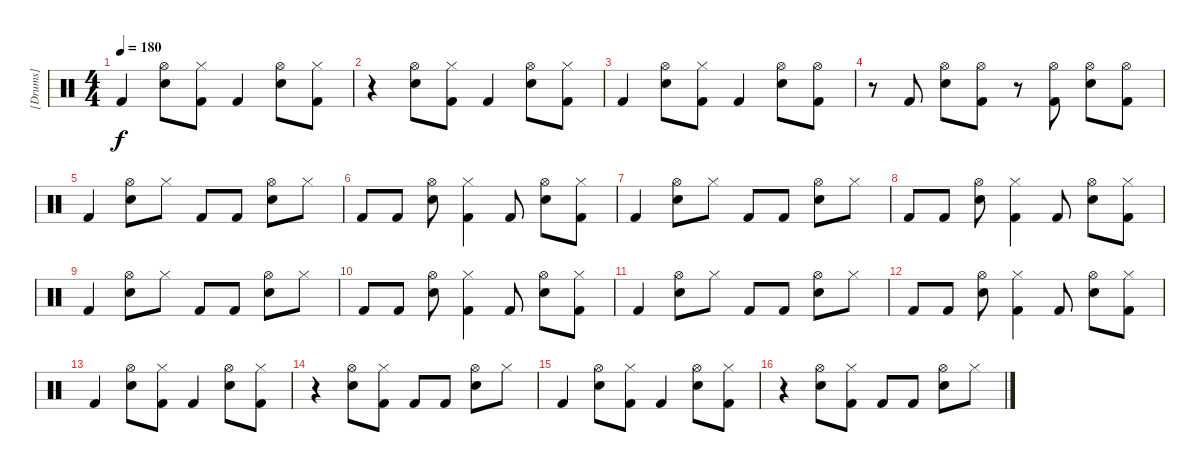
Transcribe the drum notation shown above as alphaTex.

\track ("[Drums]" "[Drums]") {instrument percussion}
\staff {score}
\articulation defaults
\ts (4 4)
\tempo 180
\clef neutral
\ks c "Kick (hit) 2".4{dy f}
("Hi-Hat (open)" "Electric Snare (hit)").8 ("Hi-Hat (closed)" "Kick (hit) 2").8 "Kick (hit) 2".4 ("Hi-Hat (open)" "Electric Snare (hit)").8 ("Hi-Hat (closed)" "Kick (hit) 2").8 |
r.4 ("Hi-Hat (open)" "Electric Snare (hit)").8 ("Hi-Hat (closed)" "Kick (hit) 2").8 "Kick (hit) 2".4 ("Hi-Hat (open)" "Electric Snare (hit)").8 ("Hi-Hat (closed)" "Kick (hit) 2").8 |
"Kick (hit) 2".4 ("Hi-Hat (open)" "Electric Snare (hit)").8 ("Hi-Hat (closed)" "Kick (hit) 2").8 "Kick (hit) 2".4 ("Hi-Hat (open)" "Electric Snare (hit)").8 ("Hi-Hat (open)" "Kick (hit) 2").8 |
r.8 "Kick (hit) 2".8 ("Hi-Hat (open)" "Electric Snare (hit)").8 ("Hi-Hat (open)" "Kick (hit) 2").8 r.8 ("Hi-Hat (open)" "Kick (hit) 2").8 ("Hi-Hat (open)" "Electric Snare (hit)").8 ("Hi-Hat (open)" "Kick (hit) 2").8 |
"Kick (hit) 2".4 ("Hi-Hat (open)" "Electric Snare (hit)").8 "Hi-Hat (closed)".8 "Kick (hit) 2".8 "Kick (hit) 2".8 ("Hi-Hat (open)" "Electric Snare (hit)").8 "Hi-Hat (closed)".8 |
"Kick (hit) 2".8 "Kick (hit) 2".8 ("Hi-Hat (open)" "Electric Snare (hit)").8 ("Hi-Hat (closed)" "Kick (hit) 2").4 "Kick (hit) 2".8 ("Hi-Hat (open)" "Electric Snare (hit)").8 ("Hi-Hat (closed)" "Kick (hit) 2").8 |
"Kick (hit) 2".4 ("Hi-Hat (open)" "Electric Snare (hit)").8 "Hi-Hat (closed)".8 "Kick (hit) 2".8 "Kick (hit) 2".8 ("Hi-Hat (open)" "Electric Snare (hit)").8 "Hi-Hat (closed)".8 |
"Kick (hit) 2".8 "Kick (hit) 2".8 ("Hi-Hat (open)" "Electric Snare (hit)").8 ("Hi-Hat (closed)" "Kick (hit) 2").4 "Kick (hit) 2".8 ("Hi-Hat (open)" "Electric Snare (hit)").8 ("Hi-Hat (closed)" "Kick (hit) 2").8 |
"Kick (hit) 2".4 ("Hi-Hat (open)" "Electric Snare (hit)").8 "Hi-Hat (closed)".8 "Kick (hit) 2".8 "Kick (hit) 2".8 ("Hi-Hat (open)" "Electric Snare (hit)").8 "Hi-Hat (closed)".8 |
"Kick (hit) 2".8 "Kick (hit) 2".8 ("Hi-Hat (open)" "Electric Snare (hit)").8 ("Hi-Hat (closed)" "Kick (hit) 2").4 "Kick (hit) 2".8 ("Hi-Hat (open)" "Electric Snare (hit)").8 ("Hi-Hat (closed)" "Kick (hit) 2").8 |
"Kick (hit) 2".4 ("Hi-Hat (open)" "Electric Snare (hit)").8 "Hi-Hat (closed)".8 "Kick (hit) 2".8 "Kick (hit) 2".8 ("Hi-Hat (open)" "Electric Snare (hit)").8 "Hi-Hat (closed)".8 |
"Kick (hit) 2".8 "Kick (hit) 2".8 ("Hi-Hat (open)" "Electric Snare (hit)").8 ("Hi-Hat (closed)" "Kick (hit) 2").4 "Kick (hit) 2".8 ("Hi-Hat (open)" "Electric Snare (hit)").8 ("Hi-Hat (closed)" "Kick (hit) 2").8 |
"Kick (hit) 2".4 ("Hi-Hat (open)" "Electric Snare (hit)").8 ("Hi-Hat (closed)" "Kick (hit) 2").8 "Kick (hit) 2".4 ("Hi-Hat (open)" "Electric Snare (hit)").8 ("Hi-Hat (closed)" "Kick (hit) 2").8 |
r.4 ("Hi-Hat (open)" "Electric Snare (hit)").8 ("Hi-Hat (closed)" "Kick (hit) 2").8 "Kick (hit) 2".8 "Kick (hit) 2".8 ("Hi-Hat (open)" "Electric Snare (hit)").8 "Hi-Hat (closed)".8 |
"Kick (hit) 2".4 ("Hi-Hat (open)" "Electric Snare (hit)").8 ("Hi-Hat (closed)" "Kick (hit) 2").8 "Kick (hit) 2".4 ("Hi-Hat (open)" "Electric Snare (hit)").8 ("Hi-Hat (closed)" "Kick (hit) 2").8 |
r.4 ("Hi-Hat (open)" "Electric Snare (hit)").8 ("Hi-Hat (closed)" "Kick (hit) 2").8 "Kick (hit) 2".8 "Kick (hit) 2".8 ("Hi-Hat (open)" "Electric Snare (hit)").8 "Hi-Hat (closed)".8
